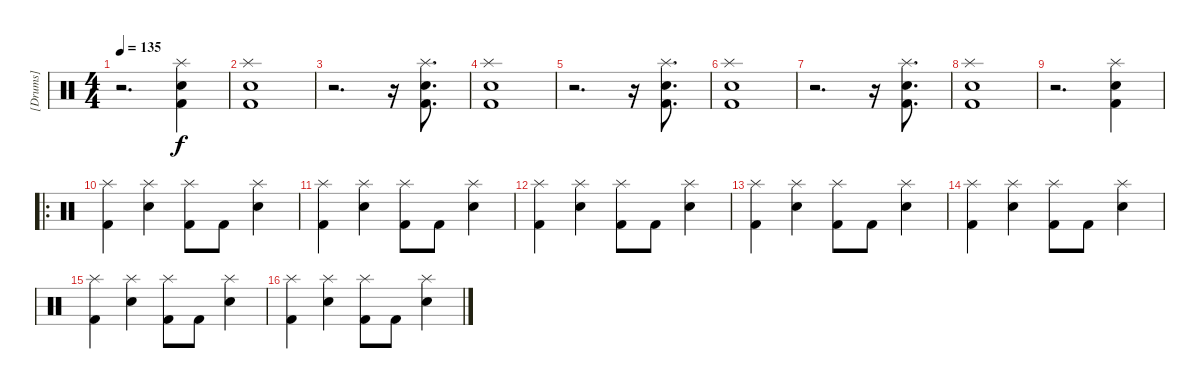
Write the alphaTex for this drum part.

\track ("[Drums]" "[Drums]") {instrument percussion}
\staff {score}
\articulation defaults
\ts (4 4)
\tempo 135
\clef neutral
\ks c
r.2{d dy f} ("Splash (hit)" "Snare (hit) 2" "Kick (hit) 2").4 |
("Splash (hit)" "Snare (hit) 2" "Kick (hit) 2").1 |
r.2{d} r.16 ("Splash (hit)" "Snare (hit) 2" "Kick (hit) 2").8{d} |
("Splash (hit)" "Snare (hit) 2" "Kick (hit) 2").1 |
r.2{d} r.16 ("Splash (hit)" "Snare (hit) 2" "Kick (hit) 2").8{d} |
("Splash (hit)" "Snare (hit) 2" "Kick (hit) 2").1 |
r.2{d} r.16 ("Splash (hit)" "Snare (hit) 2" "Kick (hit) 2").8{d} |
("Splash (hit)" "Snare (hit) 2" "Kick (hit) 2").1 |
r.2{d} ("Splash (hit)" "Snare (hit) 2" "Kick (hit) 2").4 |
\ro
("Splash (hit)" "Kick (hit) 2").4 ("Splash (hit)" "Snare (hit) 2").4 ("Splash (hit)" "Kick (hit) 2").8 "Kick (hit) 2".8 ("Splash (hit)" "Snare (hit) 2").4 |
("Splash (hit)" "Kick (hit) 2").4 ("Splash (hit)" "Snare (hit) 2").4 ("Splash (hit)" "Kick (hit) 2").8 "Kick (hit) 2".8 ("Splash (hit)" "Snare (hit) 2").4 |
("Splash (hit)" "Kick (hit) 2").4 ("Splash (hit)" "Snare (hit) 2").4 ("Splash (hit)" "Kick (hit) 2").8 "Kick (hit) 2".8 ("Splash (hit)" "Snare (hit) 2").4 |
("Splash (hit)" "Kick (hit) 2").4 ("Splash (hit)" "Snare (hit) 2").4 ("Splash (hit)" "Kick (hit) 2").8 "Kick (hit) 2".8 ("Splash (hit)" "Snare (hit) 2").4 |
("Splash (hit)" "Kick (hit) 2").4 ("Splash (hit)" "Snare (hit) 2").4 ("Splash (hit)" "Kick (hit) 2").8 "Kick (hit) 2".8 ("Splash (hit)" "Snare (hit) 2").4 |
("Splash (hit)" "Kick (hit) 2").4 ("Splash (hit)" "Snare (hit) 2").4 ("Splash (hit)" "Kick (hit) 2").8 "Kick (hit) 2".8 ("Splash (hit)" "Snare (hit) 2").4 |
("Splash (hit)" "Kick (hit) 2").4 ("Splash (hit)" "Snare (hit) 2").4 ("Splash (hit)" "Kick (hit) 2").8 "Kick (hit) 2".8 ("Splash (hit)" "Snare (hit) 2").4
